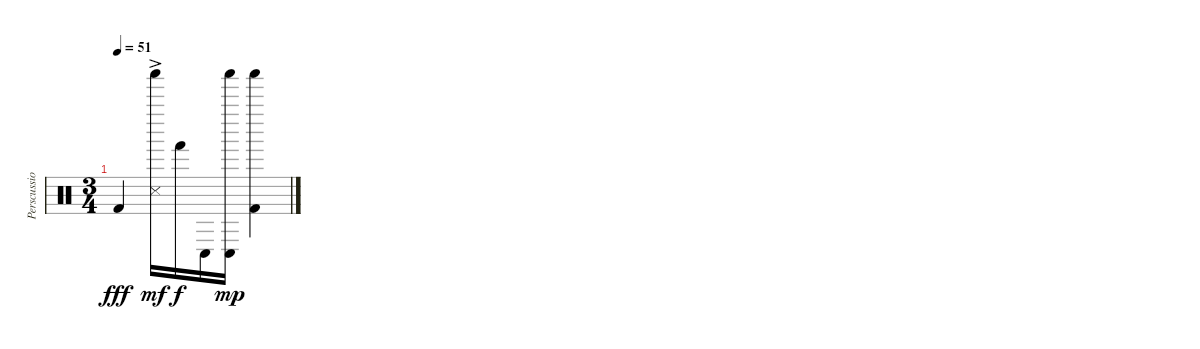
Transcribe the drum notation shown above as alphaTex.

\track ("Perscussion" "Perscussio") {instrument percussion}
\staff {score}
\articulation defaults
\ts (3 4)
\tempo 51
\clef neutral
\ks c "Kick (hit) 2".4{dy fff}
("Snare (side stick) 3"{ac} "Shaker (hit)"{ac}).16{dy mf} "Hand (hit)".16{dy f} "Conga low (hit)".16 ("Shaker (hit)" "Conga low (hit)").16{dy mp} ("Kick (hit) 2" "Shaker (hit)").4
